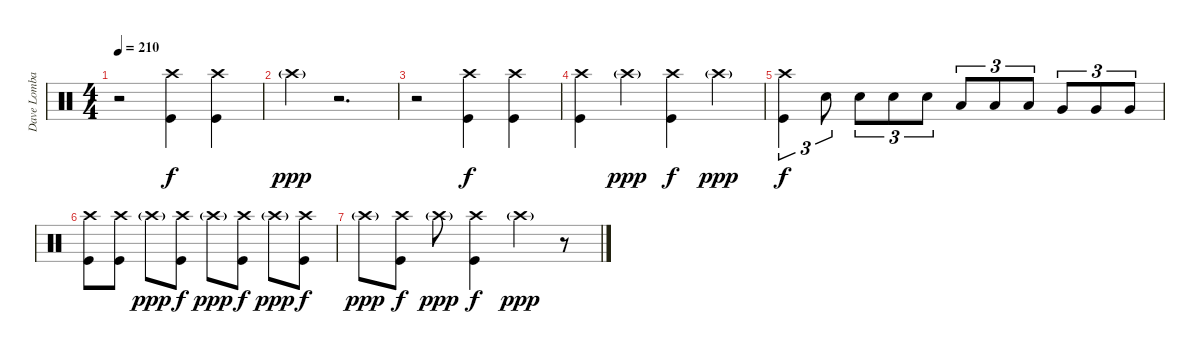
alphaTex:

\track ("Dave Lombardo" "Dave Lomba") {instrument percussion}
\staff {score}
\articulation defaults
\ts (4 4)
\tempo 210
\clef neutral
\ks c
r.2{dy ppp} ("Crash high (hit)" "Kick (hit)").4{dy f} ("Crash high (hit)" "Kick (hit)").4 |
"Crash high (hit)"{g}.4{dy ppp} r.2{d} |
r.2 ("Crash high (hit)" "Kick (hit)").4{dy f} ("Crash high (hit)" "Kick (hit)").4 |
("Crash high (hit)" "Kick (hit)").4 "Crash high (hit)"{g}.4{dy ppp} ("Crash high (hit)" "Kick (hit)").4{dy f} "Crash high (hit)"{g}.4{dy ppp} |
("Crash high (hit)" "Kick (hit)").4{tu (3 2) dy f} "Electric Snare (hit)".8{tu (3 2)} "Electric Snare (hit)".8{tu (3 2)} "Electric Snare (hit)".8{tu (3 2)} "Electric Snare (hit)".8{tu (3 2)} "Low Tom (hit)".8{tu (3 2)} "Low Tom (hit)".8{tu (3 2)} "Low Tom (hit)".8{tu (3 2)} "Very Low Tom (hit)".8{tu (3 2)} "Very Low Tom (hit)".8{tu (3 2)} "Very Low Tom (hit)".8{tu (3 2)} |
("Crash high (hit)" "Kick (hit)").8 ("Crash high (hit)" "Kick (hit)").8 "Crash high (hit)"{g}.8{dy ppp} ("Crash high (hit)" "Kick (hit)").8{dy f} "Crash high (hit)"{g}.8{dy ppp} ("Crash high (hit)" "Kick (hit)").8{dy f} "Crash high (hit)"{g}.8{dy ppp} ("Crash high (hit)" "Kick (hit)").8{dy f} |
"Crash high (hit)"{g}.8{dy ppp} ("Crash high (hit)" "Kick (hit)").8{dy f} "Crash high (hit)"{g}.8{dy ppp} ("Crash high (hit)" "Kick (hit)").4{dy f} "Crash high (hit)"{g}.4{dy ppp} r.8
